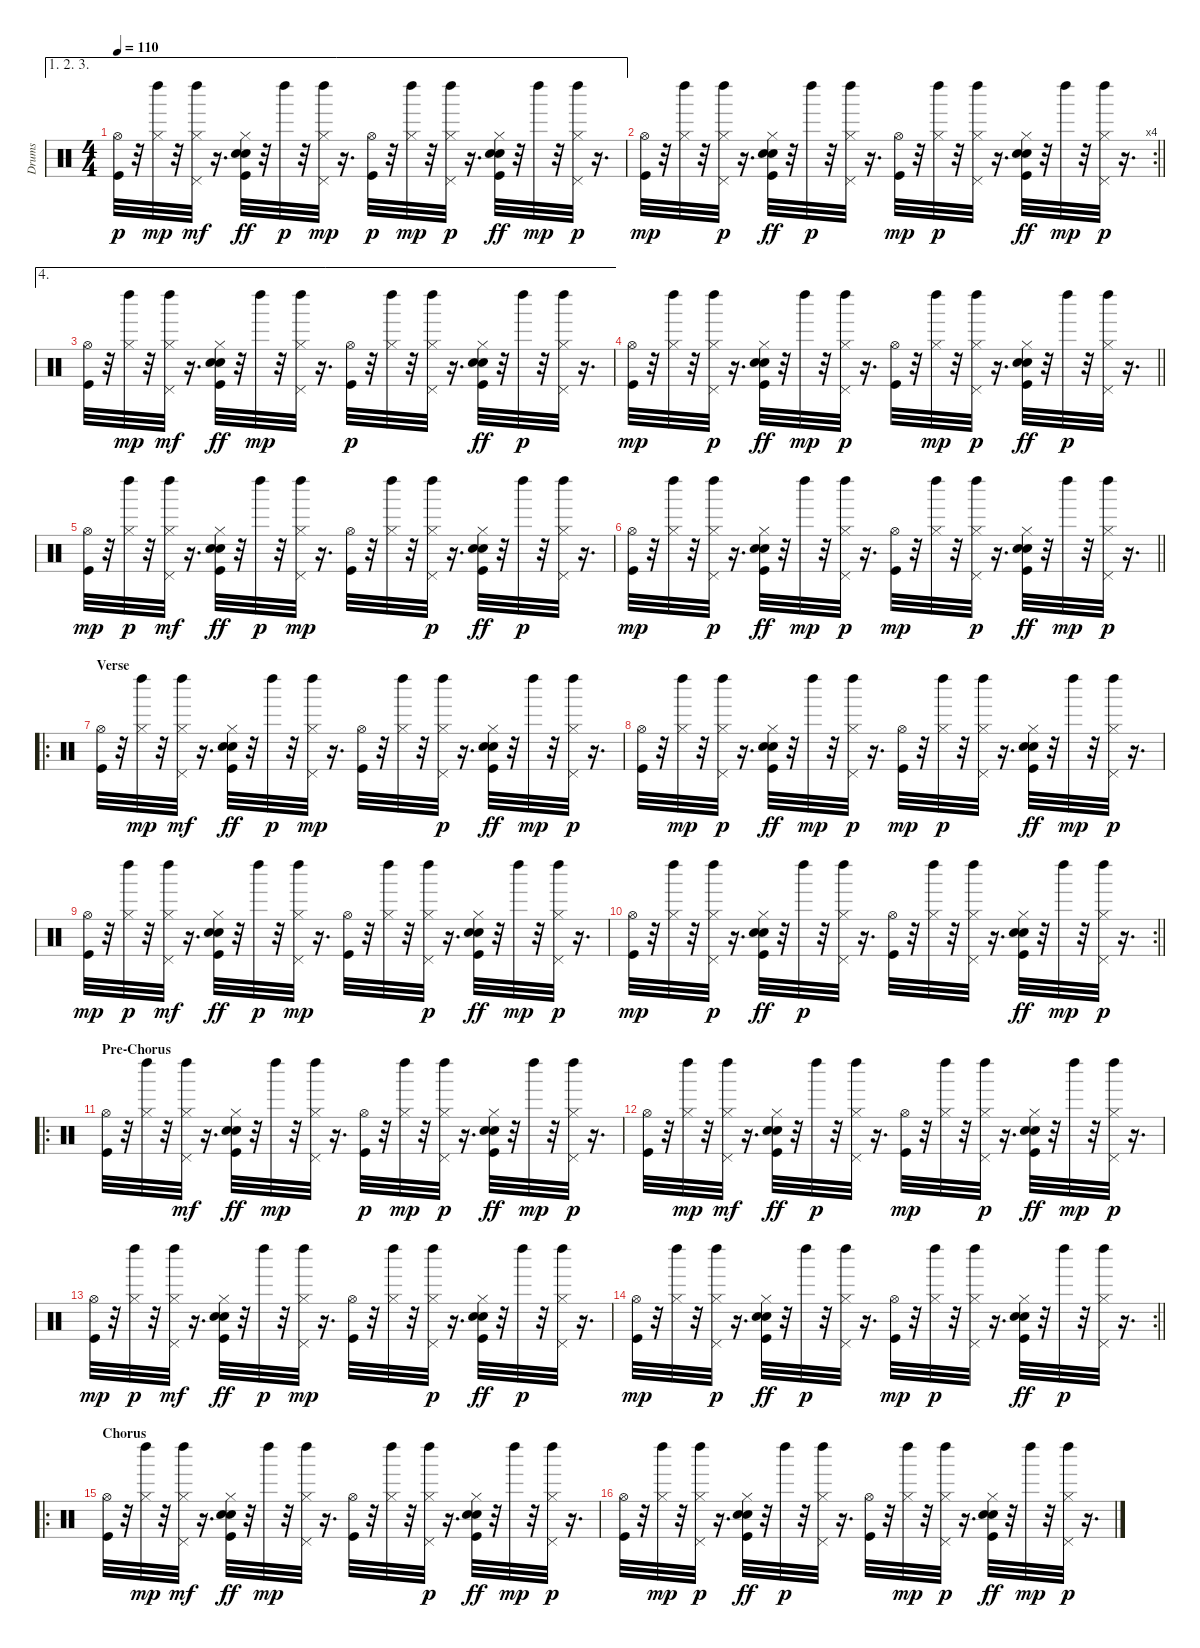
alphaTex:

\track ("Drums" "Drums") {instrument percussion}
\staff {score}
\articulation defaults
\ae (1 2 3)
\ts (4 4)
\tempo 110
\clef neutral
\ks c
("Kick (hit)" "Hi-Hat (open)").32{dy p} r.32 ("Hi-Hat (closed)" "Left Maraca (hit)").32{dy mp} r.32 ("Hi-Hat (closed)" "Pedal Hi-Hat (hit)" "Left Maraca (hit)").32{dy mf} r.16{d} ("Kick (hit)" "Snare (hit) 2" "Hand Clap (hit)" "Hi-Hat (closed)").32{dy ff} r.32 "Left Maraca (hit)".32{dy p} r.32 ("Hi-Hat (closed)" "Pedal Hi-Hat (hit)" "Left Maraca (hit)").32{dy mp} r.16{d} ("Kick (hit)" "Hi-Hat (open)").32{dy p} r.32 ("Hi-Hat (closed)" "Left Maraca (hit)").32{dy mp} r.32 ("Hi-Hat (closed)" "Pedal Hi-Hat (hit)" "Left Maraca (hit)").32{dy p} r.16{d} ("Kick (hit)" "Snare (hit) 2" "Hand Clap (hit)" "Hi-Hat (closed)").32{dy ff} r.32 "Left Maraca (hit)".32{dy mp} r.32 ("Hi-Hat (closed)" "Pedal Hi-Hat (hit)" "Left Maraca (hit)").32{dy p} r.16{d} |
\rc 4
\barLineRight lightlight
("Kick (hit)" "Hi-Hat (open)").32{dy mp} r.32 ("Hi-Hat (closed)" "Left Maraca (hit)").32 r.32 ("Hi-Hat (closed)" "Pedal Hi-Hat (hit)" "Left Maraca (hit)").32{dy p} r.16{d} ("Kick (hit)" "Snare (hit) 2" "Hand Clap (hit)" "Hi-Hat (closed)").32{dy ff} r.32 "Left Maraca (hit)".32{dy p} r.32 ("Hi-Hat (closed)" "Pedal Hi-Hat (hit)" "Left Maraca (hit)").32 r.16{d} ("Kick (hit)" "Hi-Hat (open)").32{dy mp} r.32 ("Hi-Hat (closed)" "Left Maraca (hit)").32{dy p} r.32 ("Hi-Hat (closed)" "Pedal Hi-Hat (hit)" "Left Maraca (hit)").32 r.16{d} ("Kick (hit)" "Snare (hit) 2" "Hand Clap (hit)" "Hi-Hat (closed)").32{dy ff} r.32 "Left Maraca (hit)".32{dy mp} r.32 ("Hi-Hat (closed)" "Pedal Hi-Hat (hit)" "Left Maraca (hit)").32{dy p} r.16{d} |
\ae 4
("Kick (hit)" "Hi-Hat (open)").32 r.32 ("Hi-Hat (closed)" "Left Maraca (hit)").32{dy mp} r.32 ("Hi-Hat (closed)" "Pedal Hi-Hat (hit)" "Left Maraca (hit)").32{dy mf} r.16{d} ("Kick (hit)" "Snare (hit) 2" "Hand Clap (hit)" "Hi-Hat (closed)").32{dy ff} r.32 "Left Maraca (hit)".32{dy mp} r.32 ("Hi-Hat (closed)" "Pedal Hi-Hat (hit)" "Left Maraca (hit)").32 r.16{d} ("Kick (hit)" "Hi-Hat (open)").32{dy p} r.32 ("Hi-Hat (closed)" "Left Maraca (hit)").32 r.32 ("Hi-Hat (closed)" "Pedal Hi-Hat (hit)" "Left Maraca (hit)").32 r.16{d} ("Kick (hit)" "Snare (hit) 2" "Hand Clap (hit)" "Hi-Hat (closed)").32{dy ff} r.32 "Left Maraca (hit)".32{dy p} r.32 ("Hi-Hat (closed)" "Pedal Hi-Hat (hit)" "Left Maraca (hit)").32 r.16{d} |
\barLineRight lightlight
("Kick (hit)" "Hi-Hat (open)").32{dy mp} r.32 ("Hi-Hat (closed)" "Left Maraca (hit)").32 r.32 ("Hi-Hat (closed)" "Pedal Hi-Hat (hit)" "Left Maraca (hit)").32{dy p} r.16{d} ("Kick (hit)" "Snare (hit) 2" "Hand Clap (hit)" "Hi-Hat (closed)").32{dy ff} r.32 "Left Maraca (hit)".32{dy mp} r.32 ("Hi-Hat (closed)" "Pedal Hi-Hat (hit)" "Left Maraca (hit)").32{dy p} r.16{d} ("Kick (hit)" "Hi-Hat (open)").32 r.32 ("Hi-Hat (closed)" "Left Maraca (hit)").32{dy mp} r.32 ("Hi-Hat (closed)" "Pedal Hi-Hat (hit)" "Left Maraca (hit)").32{dy p} r.16{d} ("Kick (hit)" "Snare (hit) 2" "Hand Clap (hit)" "Hi-Hat (closed)").32{dy ff} r.32 "Left Maraca (hit)".32{dy p} r.32 ("Hi-Hat (closed)" "Pedal Hi-Hat (hit)" "Left Maraca (hit)").32 r.16{d} |
("Kick (hit)" "Hi-Hat (open)").32{dy mp} r.32 ("Hi-Hat (closed)" "Left Maraca (hit)").32{dy p} r.32 ("Hi-Hat (closed)" "Pedal Hi-Hat (hit)" "Left Maraca (hit)").32{dy mf} r.16{d} ("Kick (hit)" "Snare (hit) 2" "Hand Clap (hit)" "Hi-Hat (closed)").32{dy ff} r.32 "Left Maraca (hit)".32{dy p} r.32 ("Hi-Hat (closed)" "Pedal Hi-Hat (hit)" "Left Maraca (hit)").32{dy mp} r.16{d} ("Kick (hit)" "Hi-Hat (open)").32 r.32 ("Hi-Hat (closed)" "Left Maraca (hit)").32 r.32 ("Hi-Hat (closed)" "Pedal Hi-Hat (hit)" "Left Maraca (hit)").32{dy p} r.16{d} ("Kick (hit)" "Snare (hit) 2" "Hand Clap (hit)" "Hi-Hat (closed)").32{dy ff} r.32 "Left Maraca (hit)".32{dy p} r.32 ("Hi-Hat (closed)" "Pedal Hi-Hat (hit)" "Left Maraca (hit)").32 r.16{d} |
\barLineRight lightlight
("Kick (hit)" "Hi-Hat (open)").32{dy mp} r.32 ("Hi-Hat (closed)" "Left Maraca (hit)").32 r.32 ("Hi-Hat (closed)" "Pedal Hi-Hat (hit)" "Left Maraca (hit)").32{dy p} r.16{d} ("Kick (hit)" "Snare (hit) 2" "Hand Clap (hit)" "Hi-Hat (closed)").32{dy ff} r.32 "Left Maraca (hit)".32{dy mp} r.32 ("Hi-Hat (closed)" "Pedal Hi-Hat (hit)" "Left Maraca (hit)").32{dy p} r.16{d} ("Kick (hit)" "Hi-Hat (open)").32{dy mp} r.32 ("Hi-Hat (closed)" "Left Maraca (hit)").32 r.32 ("Hi-Hat (closed)" "Pedal Hi-Hat (hit)" "Left Maraca (hit)").32{dy p} r.16{d} ("Kick (hit)" "Snare (hit) 2" "Hand Clap (hit)" "Hi-Hat (closed)").32{dy ff} r.32 "Left Maraca (hit)".32{dy mp} r.32 ("Hi-Hat (closed)" "Pedal Hi-Hat (hit)" "Left Maraca (hit)").32{dy p} r.16{d} |
\ro
\section ("" "Verse")
("Kick (hit)" "Hi-Hat (open)").32 r.32 ("Hi-Hat (closed)" "Left Maraca (hit)").32{dy mp} r.32 ("Hi-Hat (closed)" "Pedal Hi-Hat (hit)" "Left Maraca (hit)").32{dy mf} r.16{d} ("Kick (hit)" "Snare (hit) 2" "Hand Clap (hit)" "Hi-Hat (closed)").32{dy ff} r.32 "Left Maraca (hit)".32{dy p} r.32 ("Hi-Hat (closed)" "Pedal Hi-Hat (hit)" "Left Maraca (hit)").32{dy mp} r.16{d} ("Kick (hit)" "Hi-Hat (open)").32 r.32 ("Hi-Hat (closed)" "Left Maraca (hit)").32 r.32 ("Hi-Hat (closed)" "Pedal Hi-Hat (hit)" "Left Maraca (hit)").32{dy p} r.16{d} ("Kick (hit)" "Snare (hit) 2" "Hand Clap (hit)" "Hi-Hat (closed)").32{dy ff} r.32 "Left Maraca (hit)".32{dy mp} r.32 ("Hi-Hat (closed)" "Pedal Hi-Hat (hit)" "Left Maraca (hit)").32{dy p} r.16{d} |
("Kick (hit)" "Hi-Hat (open)").32 r.32 ("Hi-Hat (closed)" "Left Maraca (hit)").32{dy mp} r.32 ("Hi-Hat (closed)" "Pedal Hi-Hat (hit)" "Left Maraca (hit)").32{dy p} r.16{d} ("Kick (hit)" "Snare (hit) 2" "Hand Clap (hit)" "Hi-Hat (closed)").32{dy ff} r.32 "Left Maraca (hit)".32{dy mp} r.32 ("Hi-Hat (closed)" "Pedal Hi-Hat (hit)" "Left Maraca (hit)").32{dy p} r.16{d} ("Kick (hit)" "Hi-Hat (open)").32{dy mp} r.32 ("Hi-Hat (closed)" "Left Maraca (hit)").32{dy p} r.32 ("Hi-Hat (closed)" "Pedal Hi-Hat (hit)" "Left Maraca (hit)").32 r.16{d} ("Kick (hit)" "Snare (hit) 2" "Hand Clap (hit)" "Hi-Hat (closed)").32{dy ff} r.32 "Left Maraca (hit)".32{dy mp} r.32 ("Hi-Hat (closed)" "Pedal Hi-Hat (hit)" "Left Maraca (hit)").32{dy p} r.16{d} |
("Kick (hit)" "Hi-Hat (open)").32{dy mp} r.32 ("Hi-Hat (closed)" "Left Maraca (hit)").32{dy p} r.32 ("Hi-Hat (closed)" "Pedal Hi-Hat (hit)" "Left Maraca (hit)").32{dy mf} r.16{d} ("Kick (hit)" "Snare (hit) 2" "Hand Clap (hit)" "Hi-Hat (closed)").32{dy ff} r.32 "Left Maraca (hit)".32{dy p} r.32 ("Hi-Hat (closed)" "Pedal Hi-Hat (hit)" "Left Maraca (hit)").32{dy mp} r.16{d} ("Kick (hit)" "Hi-Hat (open)").32 r.32 ("Hi-Hat (closed)" "Left Maraca (hit)").32 r.32 ("Hi-Hat (closed)" "Pedal Hi-Hat (hit)" "Left Maraca (hit)").32{dy p} r.16{d} ("Kick (hit)" "Snare (hit) 2" "Hand Clap (hit)" "Hi-Hat (closed)").32{dy ff} r.32 "Left Maraca (hit)".32{dy mp} r.32 ("Hi-Hat (closed)" "Pedal Hi-Hat (hit)" "Left Maraca (hit)").32{dy p} r.16{d} |
\rc 2
\barLineRight lightlight
("Kick (hit)" "Hi-Hat (open)").32{dy mp} r.32 ("Hi-Hat (closed)" "Left Maraca (hit)").32 r.32 ("Hi-Hat (closed)" "Pedal Hi-Hat (hit)" "Left Maraca (hit)").32{dy p} r.16{d} ("Kick (hit)" "Snare (hit) 2" "Hand Clap (hit)" "Hi-Hat (closed)").32{dy ff} r.32 "Left Maraca (hit)".32{dy p} r.32 ("Hi-Hat (closed)" "Pedal Hi-Hat (hit)" "Left Maraca (hit)").32 r.16{d} ("Kick (hit)" "Hi-Hat (open)").32 r.32 ("Hi-Hat (closed)" "Left Maraca (hit)").32 r.32 ("Hi-Hat (closed)" "Pedal Hi-Hat (hit)" "Left Maraca (hit)").32 r.16{d} ("Kick (hit)" "Snare (hit) 2" "Hand Clap (hit)" "Hi-Hat (closed)").32{dy ff} r.32 "Left Maraca (hit)".32{dy mp} r.32 ("Hi-Hat (closed)" "Pedal Hi-Hat (hit)" "Left Maraca (hit)").32{dy p} r.16{d} |
\ro
\section ("" "Pre-Chorus")
("Kick (hit)" "Hi-Hat (open)").32 r.32 ("Hi-Hat (closed)" "Left Maraca (hit)").32 r.32 ("Hi-Hat (closed)" "Pedal Hi-Hat (hit)" "Left Maraca (hit)").32{dy mf} r.16{d} ("Kick (hit)" "Snare (hit) 2" "Hand Clap (hit)" "Hi-Hat (closed)").32{dy ff} r.32 "Left Maraca (hit)".32{dy mp} r.32 ("Hi-Hat (closed)" "Pedal Hi-Hat (hit)" "Left Maraca (hit)").32 r.16{d} ("Kick (hit)" "Hi-Hat (open)").32{dy p} r.32 ("Hi-Hat (closed)" "Left Maraca (hit)").32{dy mp} r.32 ("Hi-Hat (closed)" "Pedal Hi-Hat (hit)" "Left Maraca (hit)").32{dy p} r.16{d} ("Kick (hit)" "Snare (hit) 2" "Hand Clap (hit)" "Hi-Hat (closed)").32{dy ff} r.32 "Left Maraca (hit)".32{dy mp} r.32 ("Hi-Hat (closed)" "Pedal Hi-Hat (hit)" "Left Maraca (hit)").32{dy p} r.16{d} |
("Kick (hit)" "Hi-Hat (open)").32 r.32 ("Hi-Hat (closed)" "Left Maraca (hit)").32{dy mp} r.32 ("Hi-Hat (closed)" "Pedal Hi-Hat (hit)" "Left Maraca (hit)").32{dy mf} r.16{d} ("Kick (hit)" "Snare (hit) 2" "Hand Clap (hit)" "Hi-Hat (closed)").32{dy ff} r.32 "Left Maraca (hit)".32{dy p} r.32 ("Hi-Hat (closed)" "Pedal Hi-Hat (hit)" "Left Maraca (hit)").32 r.16{d} ("Kick (hit)" "Hi-Hat (open)").32{dy mp} r.32 ("Hi-Hat (closed)" "Left Maraca (hit)").32 r.32 ("Hi-Hat (closed)" "Pedal Hi-Hat (hit)" "Left Maraca (hit)").32{dy p} r.16{d} ("Kick (hit)" "Snare (hit) 2" "Hand Clap (hit)" "Hi-Hat (closed)").32{dy ff} r.32 "Left Maraca (hit)".32{dy mp} r.32 ("Hi-Hat (closed)" "Pedal Hi-Hat (hit)" "Left Maraca (hit)").32{dy p} r.16{d} |
("Kick (hit)" "Hi-Hat (open)").32{dy mp} r.32 ("Hi-Hat (closed)" "Left Maraca (hit)").32{dy p} r.32 ("Hi-Hat (closed)" "Pedal Hi-Hat (hit)" "Left Maraca (hit)").32{dy mf} r.16{d} ("Kick (hit)" "Snare (hit) 2" "Hand Clap (hit)" "Hi-Hat (closed)").32{dy ff} r.32 "Left Maraca (hit)".32{dy p} r.32 ("Hi-Hat (closed)" "Pedal Hi-Hat (hit)" "Left Maraca (hit)").32{dy mp} r.16{d} ("Kick (hit)" "Hi-Hat (open)").32 r.32 ("Hi-Hat (closed)" "Left Maraca (hit)").32 r.32 ("Hi-Hat (closed)" "Pedal Hi-Hat (hit)" "Left Maraca (hit)").32{dy p} r.16{d} ("Kick (hit)" "Snare (hit) 2" "Hand Clap (hit)" "Hi-Hat (closed)").32{dy ff} r.32 "Left Maraca (hit)".32{dy p} r.32 ("Hi-Hat (closed)" "Pedal Hi-Hat (hit)" "Left Maraca (hit)").32 r.16{d} |
\rc 2
\barLineRight lightlight
("Kick (hit)" "Hi-Hat (open)").32{dy mp} r.32 ("Hi-Hat (closed)" "Left Maraca (hit)").32 r.32 ("Hi-Hat (closed)" "Pedal Hi-Hat (hit)" "Left Maraca (hit)").32{dy p} r.16{d} ("Kick (hit)" "Snare (hit) 2" "Hand Clap (hit)" "Hi-Hat (closed)").32{dy ff} r.32 "Left Maraca (hit)".32{dy p} r.32 ("Hi-Hat (closed)" "Pedal Hi-Hat (hit)" "Left Maraca (hit)").32 r.16{d} ("Kick (hit)" "Hi-Hat (open)").32{dy mp} r.32 ("Hi-Hat (closed)" "Left Maraca (hit)").32{dy p} r.32 ("Hi-Hat (closed)" "Pedal Hi-Hat (hit)" "Left Maraca (hit)").32 r.16{d} ("Kick (hit)" "Snare (hit) 2" "Hand Clap (hit)" "Hi-Hat (closed)").32{dy ff} r.32 "Left Maraca (hit)".32{dy p} r.32 ("Hi-Hat (closed)" "Pedal Hi-Hat (hit)" "Left Maraca (hit)").32 r.16{d} |
\ro
\section ("" "Chorus")
("Kick (hit)" "Hi-Hat (open)").32 r.32 ("Hi-Hat (closed)" "Left Maraca (hit)").32{dy mp} r.32 ("Hi-Hat (closed)" "Pedal Hi-Hat (hit)" "Left Maraca (hit)").32{dy mf} r.16{d} ("Kick (hit)" "Snare (hit) 2" "Hand Clap (hit)" "Hi-Hat (closed)").32{dy ff} r.32 "Left Maraca (hit)".32{dy mp} r.32 ("Hi-Hat (closed)" "Pedal Hi-Hat (hit)" "Left Maraca (hit)").32 r.16{d} ("Kick (hit)" "Hi-Hat (open)").32 r.32 ("Hi-Hat (closed)" "Left Maraca (hit)").32 r.32 ("Hi-Hat (closed)" "Pedal Hi-Hat (hit)" "Left Maraca (hit)").32{dy p} r.16{d} ("Kick (hit)" "Snare (hit) 2" "Hand Clap (hit)" "Hi-Hat (closed)").32{dy ff} r.32 "Left Maraca (hit)".32{dy mp} r.32 ("Hi-Hat (closed)" "Pedal Hi-Hat (hit)" "Left Maraca (hit)").32{dy p} r.16{d} |
("Kick (hit)" "Hi-Hat (open)").32 r.32 ("Hi-Hat (closed)" "Left Maraca (hit)").32{dy mp} r.32 ("Hi-Hat (closed)" "Pedal Hi-Hat (hit)" "Left Maraca (hit)").32{dy p} r.16{d} ("Kick (hit)" "Snare (hit) 2" "Hand Clap (hit)" "Hi-Hat (closed)").32{dy ff} r.32 "Left Maraca (hit)".32{dy p} r.32 ("Hi-Hat (closed)" "Pedal Hi-Hat (hit)" "Left Maraca (hit)").32 r.16{d} ("Kick (hit)" "Hi-Hat (open)").32 r.32 ("Hi-Hat (closed)" "Left Maraca (hit)").32{dy mp} r.32 ("Hi-Hat (closed)" "Pedal Hi-Hat (hit)" "Left Maraca (hit)").32{dy p} r.16{d} ("Kick (hit)" "Snare (hit) 2" "Hand Clap (hit)" "Hi-Hat (closed)").32{dy ff} r.32 "Left Maraca (hit)".32{dy mp} r.32 ("Hi-Hat (closed)" "Pedal Hi-Hat (hit)" "Left Maraca (hit)").32{dy p} r.16{d}
